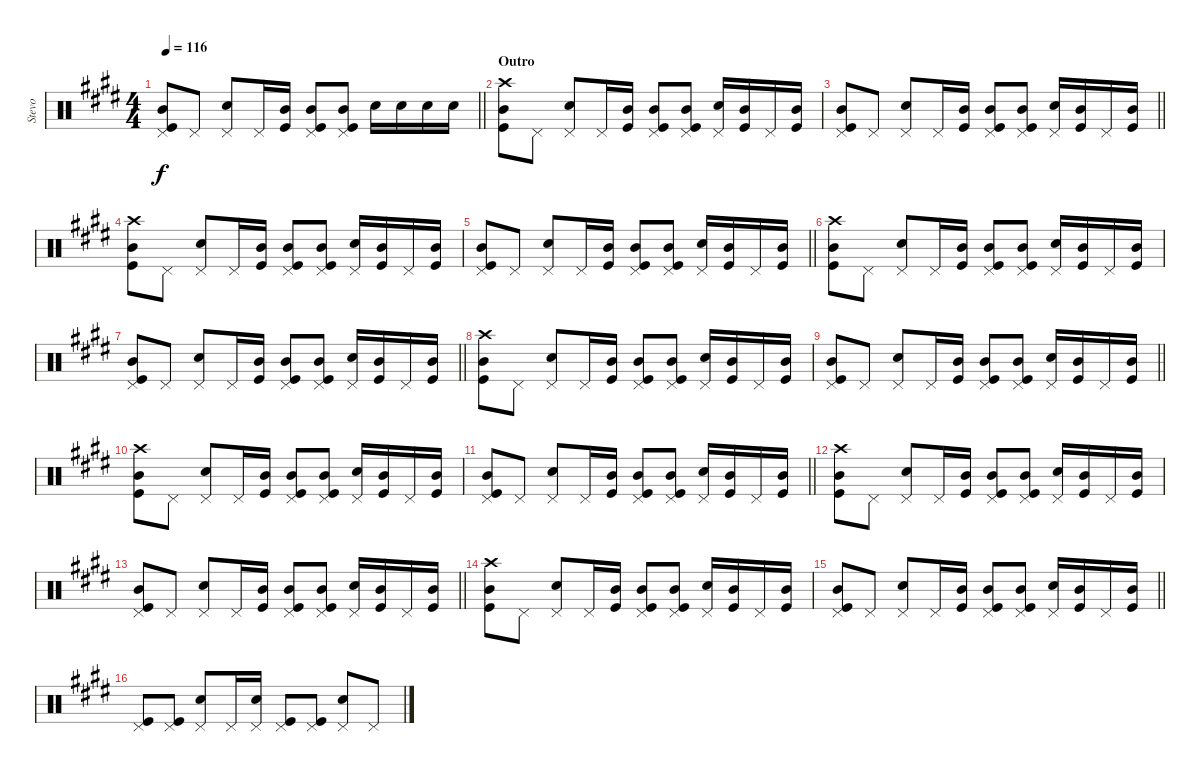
\track ("Stevo" "Stevo") {instrument percussion}
\staff {score}
\articulation defaults
\ts (4 4)
\tempo 116
\clef neutral
\barLineRight lightlight
\ks e
("Kick (hit)" "Pedal Hi-Hat (hit)" "Mid Tom (hit)").8{dy f} "Pedal Hi-Hat (hit)".8 ("Electric Snare (hit)" "Pedal Hi-Hat (hit)").8 "Pedal Hi-Hat (hit)".16 ("Kick (hit)" "Mid Tom (hit)").16 ("Kick (hit)" "Pedal Hi-Hat (hit)" "Mid Tom (hit)").8 ("Kick (hit)" "Pedal Hi-Hat (hit)" "Mid Tom (hit)").8 "Electric Snare (hit)".16 "Electric Snare (hit)".16 "Electric Snare (hit)".16 "Electric Snare (hit)".16 |
\section ("" "Outro")
("Kick (hit)" "Crash high (hit)" "Mid Tom (hit)").8 "Pedal Hi-Hat (hit)".8 ("Electric Snare (hit)" "Pedal Hi-Hat (hit)").8 "Pedal Hi-Hat (hit)".16 ("Kick (hit)" "Mid Tom (hit)").16 ("Kick (hit)" "Pedal Hi-Hat (hit)" "Mid Tom (hit)").8 ("Kick (hit)" "Pedal Hi-Hat (hit)" "Mid Tom (hit)").8 ("Electric Snare (hit)" "Pedal Hi-Hat (hit)").16 ("Kick (hit)" "Mid Tom (hit)").16 "Pedal Hi-Hat (hit)".16 ("Kick (hit)" "Mid Tom (hit)").16 |
\barLineRight lightlight
("Kick (hit)" "Pedal Hi-Hat (hit)" "Mid Tom (hit)").8 "Pedal Hi-Hat (hit)".8 ("Electric Snare (hit)" "Pedal Hi-Hat (hit)").8 "Pedal Hi-Hat (hit)".16 ("Kick (hit)" "Mid Tom (hit)").16 ("Kick (hit)" "Pedal Hi-Hat (hit)" "Mid Tom (hit)").8 ("Kick (hit)" "Pedal Hi-Hat (hit)" "Mid Tom (hit)").8 ("Electric Snare (hit)" "Pedal Hi-Hat (hit)").16 ("Kick (hit)" "Mid Tom (hit)").16 "Pedal Hi-Hat (hit)".16 ("Kick (hit)" "Mid Tom (hit)").16 |
("Kick (hit)" "Crash high (hit)" "Mid Tom (hit)").8 "Pedal Hi-Hat (hit)".8 ("Electric Snare (hit)" "Pedal Hi-Hat (hit)").8 "Pedal Hi-Hat (hit)".16 ("Kick (hit)" "Mid Tom (hit)").16 ("Kick (hit)" "Pedal Hi-Hat (hit)" "Mid Tom (hit)").8 ("Kick (hit)" "Pedal Hi-Hat (hit)" "Mid Tom (hit)").8 ("Electric Snare (hit)" "Pedal Hi-Hat (hit)").16 ("Kick (hit)" "Mid Tom (hit)").16 "Pedal Hi-Hat (hit)".16 ("Kick (hit)" "Mid Tom (hit)").16 |
\barLineRight lightlight
("Kick (hit)" "Pedal Hi-Hat (hit)" "Mid Tom (hit)").8 "Pedal Hi-Hat (hit)".8 ("Electric Snare (hit)" "Pedal Hi-Hat (hit)").8 "Pedal Hi-Hat (hit)".16 ("Kick (hit)" "Mid Tom (hit)").16 ("Kick (hit)" "Pedal Hi-Hat (hit)" "Mid Tom (hit)").8 ("Kick (hit)" "Pedal Hi-Hat (hit)" "Mid Tom (hit)").8 ("Electric Snare (hit)" "Pedal Hi-Hat (hit)").16 ("Kick (hit)" "Mid Tom (hit)").16 "Pedal Hi-Hat (hit)".16 ("Kick (hit)" "Mid Tom (hit)").16 |
("Kick (hit)" "Crash high (hit)" "Mid Tom (hit)").8 "Pedal Hi-Hat (hit)".8 ("Electric Snare (hit)" "Pedal Hi-Hat (hit)").8 "Pedal Hi-Hat (hit)".16 ("Kick (hit)" "Mid Tom (hit)").16 ("Kick (hit)" "Pedal Hi-Hat (hit)" "Mid Tom (hit)").8 ("Kick (hit)" "Pedal Hi-Hat (hit)" "Mid Tom (hit)").8 ("Electric Snare (hit)" "Pedal Hi-Hat (hit)").16 ("Kick (hit)" "Mid Tom (hit)").16 "Pedal Hi-Hat (hit)".16 ("Kick (hit)" "Mid Tom (hit)").16 |
\barLineRight lightlight
("Kick (hit)" "Pedal Hi-Hat (hit)" "Mid Tom (hit)").8 "Pedal Hi-Hat (hit)".8 ("Electric Snare (hit)" "Pedal Hi-Hat (hit)").8 "Pedal Hi-Hat (hit)".16 ("Kick (hit)" "Mid Tom (hit)").16 ("Kick (hit)" "Pedal Hi-Hat (hit)" "Mid Tom (hit)").8 ("Kick (hit)" "Pedal Hi-Hat (hit)" "Mid Tom (hit)").8 ("Electric Snare (hit)" "Pedal Hi-Hat (hit)").16 ("Kick (hit)" "Mid Tom (hit)").16 "Pedal Hi-Hat (hit)".16 ("Kick (hit)" "Mid Tom (hit)").16 |
("Kick (hit)" "Crash high (hit)" "Mid Tom (hit)").8 "Pedal Hi-Hat (hit)".8 ("Electric Snare (hit)" "Pedal Hi-Hat (hit)").8 "Pedal Hi-Hat (hit)".16 ("Kick (hit)" "Mid Tom (hit)").16 ("Kick (hit)" "Pedal Hi-Hat (hit)" "Mid Tom (hit)").8 ("Kick (hit)" "Pedal Hi-Hat (hit)" "Mid Tom (hit)").8 ("Electric Snare (hit)" "Pedal Hi-Hat (hit)").16 ("Kick (hit)" "Mid Tom (hit)").16 "Pedal Hi-Hat (hit)".16 ("Kick (hit)" "Mid Tom (hit)").16 |
\barLineRight lightlight
("Kick (hit)" "Pedal Hi-Hat (hit)" "Mid Tom (hit)").8 "Pedal Hi-Hat (hit)".8 ("Electric Snare (hit)" "Pedal Hi-Hat (hit)").8 "Pedal Hi-Hat (hit)".16 ("Kick (hit)" "Mid Tom (hit)").16 ("Kick (hit)" "Pedal Hi-Hat (hit)" "Mid Tom (hit)").8 ("Kick (hit)" "Pedal Hi-Hat (hit)" "Mid Tom (hit)").8 ("Electric Snare (hit)" "Pedal Hi-Hat (hit)").16 ("Kick (hit)" "Mid Tom (hit)").16 "Pedal Hi-Hat (hit)".16 ("Kick (hit)" "Mid Tom (hit)").16 |
("Kick (hit)" "Crash high (hit)" "Mid Tom (hit)").8 "Pedal Hi-Hat (hit)".8 ("Electric Snare (hit)" "Pedal Hi-Hat (hit)").8 "Pedal Hi-Hat (hit)".16 ("Kick (hit)" "Mid Tom (hit)").16 ("Kick (hit)" "Pedal Hi-Hat (hit)" "Mid Tom (hit)").8 ("Kick (hit)" "Pedal Hi-Hat (hit)" "Mid Tom (hit)").8 ("Electric Snare (hit)" "Pedal Hi-Hat (hit)").16 ("Kick (hit)" "Mid Tom (hit)").16 "Pedal Hi-Hat (hit)".16 ("Kick (hit)" "Mid Tom (hit)").16 |
\barLineRight lightlight
("Kick (hit)" "Pedal Hi-Hat (hit)" "Mid Tom (hit)").8 "Pedal Hi-Hat (hit)".8 ("Electric Snare (hit)" "Pedal Hi-Hat (hit)").8 "Pedal Hi-Hat (hit)".16 ("Kick (hit)" "Mid Tom (hit)").16 ("Kick (hit)" "Pedal Hi-Hat (hit)" "Mid Tom (hit)").8 ("Kick (hit)" "Pedal Hi-Hat (hit)" "Mid Tom (hit)").8 ("Electric Snare (hit)" "Pedal Hi-Hat (hit)").16 ("Kick (hit)" "Mid Tom (hit)").16 "Pedal Hi-Hat (hit)".16 ("Kick (hit)" "Mid Tom (hit)").16 |
("Kick (hit)" "Crash high (hit)" "Mid Tom (hit)").8 "Pedal Hi-Hat (hit)".8 ("Electric Snare (hit)" "Pedal Hi-Hat (hit)").8 "Pedal Hi-Hat (hit)".16 ("Kick (hit)" "Mid Tom (hit)").16 ("Kick (hit)" "Pedal Hi-Hat (hit)" "Mid Tom (hit)").8 ("Kick (hit)" "Pedal Hi-Hat (hit)" "Mid Tom (hit)").8 ("Electric Snare (hit)" "Pedal Hi-Hat (hit)").16 ("Kick (hit)" "Mid Tom (hit)").16 "Pedal Hi-Hat (hit)".16 ("Kick (hit)" "Mid Tom (hit)").16 |
\barLineRight lightlight
("Kick (hit)" "Pedal Hi-Hat (hit)" "Mid Tom (hit)").8 "Pedal Hi-Hat (hit)".8 ("Electric Snare (hit)" "Pedal Hi-Hat (hit)").8 "Pedal Hi-Hat (hit)".16 ("Kick (hit)" "Mid Tom (hit)").16 ("Kick (hit)" "Pedal Hi-Hat (hit)" "Mid Tom (hit)").8 ("Kick (hit)" "Pedal Hi-Hat (hit)" "Mid Tom (hit)").8 ("Electric Snare (hit)" "Pedal Hi-Hat (hit)").16 ("Kick (hit)" "Mid Tom (hit)").16 "Pedal Hi-Hat (hit)".16 ("Kick (hit)" "Mid Tom (hit)").16 |
("Kick (hit)" "Crash high (hit)" "Mid Tom (hit)").8 "Pedal Hi-Hat (hit)".8 ("Electric Snare (hit)" "Pedal Hi-Hat (hit)").8 "Pedal Hi-Hat (hit)".16 ("Kick (hit)" "Mid Tom (hit)").16 ("Kick (hit)" "Pedal Hi-Hat (hit)" "Mid Tom (hit)").8 ("Kick (hit)" "Pedal Hi-Hat (hit)" "Mid Tom (hit)").8 ("Electric Snare (hit)" "Pedal Hi-Hat (hit)").16 ("Kick (hit)" "Mid Tom (hit)").16 "Pedal Hi-Hat (hit)".16 ("Kick (hit)" "Mid Tom (hit)").16 |
\barLineRight lightlight
("Kick (hit)" "Pedal Hi-Hat (hit)" "Mid Tom (hit)").8 "Pedal Hi-Hat (hit)".8 ("Electric Snare (hit)" "Pedal Hi-Hat (hit)").8 "Pedal Hi-Hat (hit)".16 ("Kick (hit)" "Mid Tom (hit)").16 ("Kick (hit)" "Pedal Hi-Hat (hit)" "Mid Tom (hit)").8 ("Kick (hit)" "Pedal Hi-Hat (hit)" "Mid Tom (hit)").8 ("Electric Snare (hit)" "Pedal Hi-Hat (hit)").16 ("Kick (hit)" "Mid Tom (hit)").16 "Pedal Hi-Hat (hit)".16 ("Kick (hit)" "Mid Tom (hit)").16 |
("Kick (hit)" "Pedal Hi-Hat (hit)").8 ("Kick (hit)" "Pedal Hi-Hat (hit)").8 ("Electric Snare (hit)" "Pedal Hi-Hat (hit)").8 "Pedal Hi-Hat (hit)".16 ("Electric Snare (hit)" "Pedal Hi-Hat (hit)").16 ("Kick (hit)" "Pedal Hi-Hat (hit)").8 ("Kick (hit)" "Pedal Hi-Hat (hit)").8 ("Electric Snare (hit)" "Pedal Hi-Hat (hit)").8 "Pedal Hi-Hat (hit)".8
